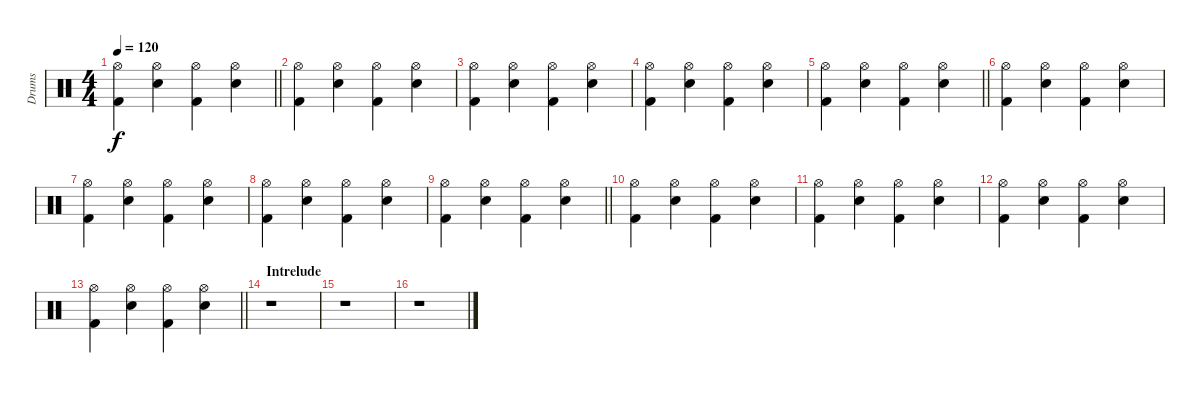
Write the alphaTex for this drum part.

\track ("Drums" "Drums") {instrument percussion}
\staff {score}
\articulation defaults
\ts (4 4)
\tempo 120
\clef neutral
\barLineRight lightlight
\ks c
("Hi-Hat (open)" "Kick (hit) 2").4{dy f} ("Hi-Hat (open)" "Electric Snare (hit)").4 ("Hi-Hat (open)" "Kick (hit) 2").4 ("Hi-Hat (open)" "Electric Snare (hit)").4 |
("Hi-Hat (open)" "Kick (hit) 2").4 ("Hi-Hat (open)" "Electric Snare (hit)").4 ("Hi-Hat (open)" "Kick (hit) 2").4 ("Hi-Hat (open)" "Electric Snare (hit)").4 |
("Hi-Hat (open)" "Kick (hit) 2").4 ("Hi-Hat (open)" "Electric Snare (hit)").4 ("Hi-Hat (open)" "Kick (hit) 2").4 ("Hi-Hat (open)" "Electric Snare (hit)").4 |
("Hi-Hat (open)" "Kick (hit) 2").4 ("Hi-Hat (open)" "Electric Snare (hit)").4 ("Hi-Hat (open)" "Kick (hit) 2").4 ("Hi-Hat (open)" "Electric Snare (hit)").4 |
\barLineRight lightlight
("Hi-Hat (open)" "Kick (hit) 2").4 ("Hi-Hat (open)" "Electric Snare (hit)").4 ("Hi-Hat (open)" "Kick (hit) 2").4 ("Hi-Hat (open)" "Electric Snare (hit)").4 |
("Hi-Hat (open)" "Kick (hit) 2").4 ("Hi-Hat (open)" "Electric Snare (hit)").4 ("Hi-Hat (open)" "Kick (hit) 2").4 ("Hi-Hat (open)" "Electric Snare (hit)").4 |
("Hi-Hat (open)" "Kick (hit) 2").4 ("Hi-Hat (open)" "Electric Snare (hit)").4 ("Hi-Hat (open)" "Kick (hit) 2").4 ("Hi-Hat (open)" "Electric Snare (hit)").4 |
("Hi-Hat (open)" "Kick (hit) 2").4 ("Hi-Hat (open)" "Electric Snare (hit)").4 ("Hi-Hat (open)" "Kick (hit) 2").4 ("Hi-Hat (open)" "Electric Snare (hit)").4 |
\barLineRight lightlight
("Hi-Hat (open)" "Kick (hit) 2").4 ("Hi-Hat (open)" "Electric Snare (hit)").4 ("Hi-Hat (open)" "Kick (hit) 2").4 ("Hi-Hat (open)" "Electric Snare (hit)").4 |
("Hi-Hat (open)" "Kick (hit) 2").4 ("Hi-Hat (open)" "Electric Snare (hit)").4 ("Hi-Hat (open)" "Kick (hit) 2").4 ("Hi-Hat (open)" "Electric Snare (hit)").4 |
("Hi-Hat (open)" "Kick (hit) 2").4 ("Hi-Hat (open)" "Electric Snare (hit)").4 ("Hi-Hat (open)" "Kick (hit) 2").4 ("Hi-Hat (open)" "Electric Snare (hit)").4 |
("Hi-Hat (open)" "Kick (hit) 2").4 ("Hi-Hat (open)" "Electric Snare (hit)").4 ("Hi-Hat (open)" "Kick (hit) 2").4 ("Hi-Hat (open)" "Electric Snare (hit)").4 |
\barLineRight lightlight
("Hi-Hat (open)" "Kick (hit) 2").4 ("Hi-Hat (open)" "Electric Snare (hit)").4 ("Hi-Hat (open)" "Kick (hit) 2").4 ("Hi-Hat (open)" "Electric Snare (hit)").4 |
\section ("" "Intrelude")
r.1 |
r.1 |
r.1
